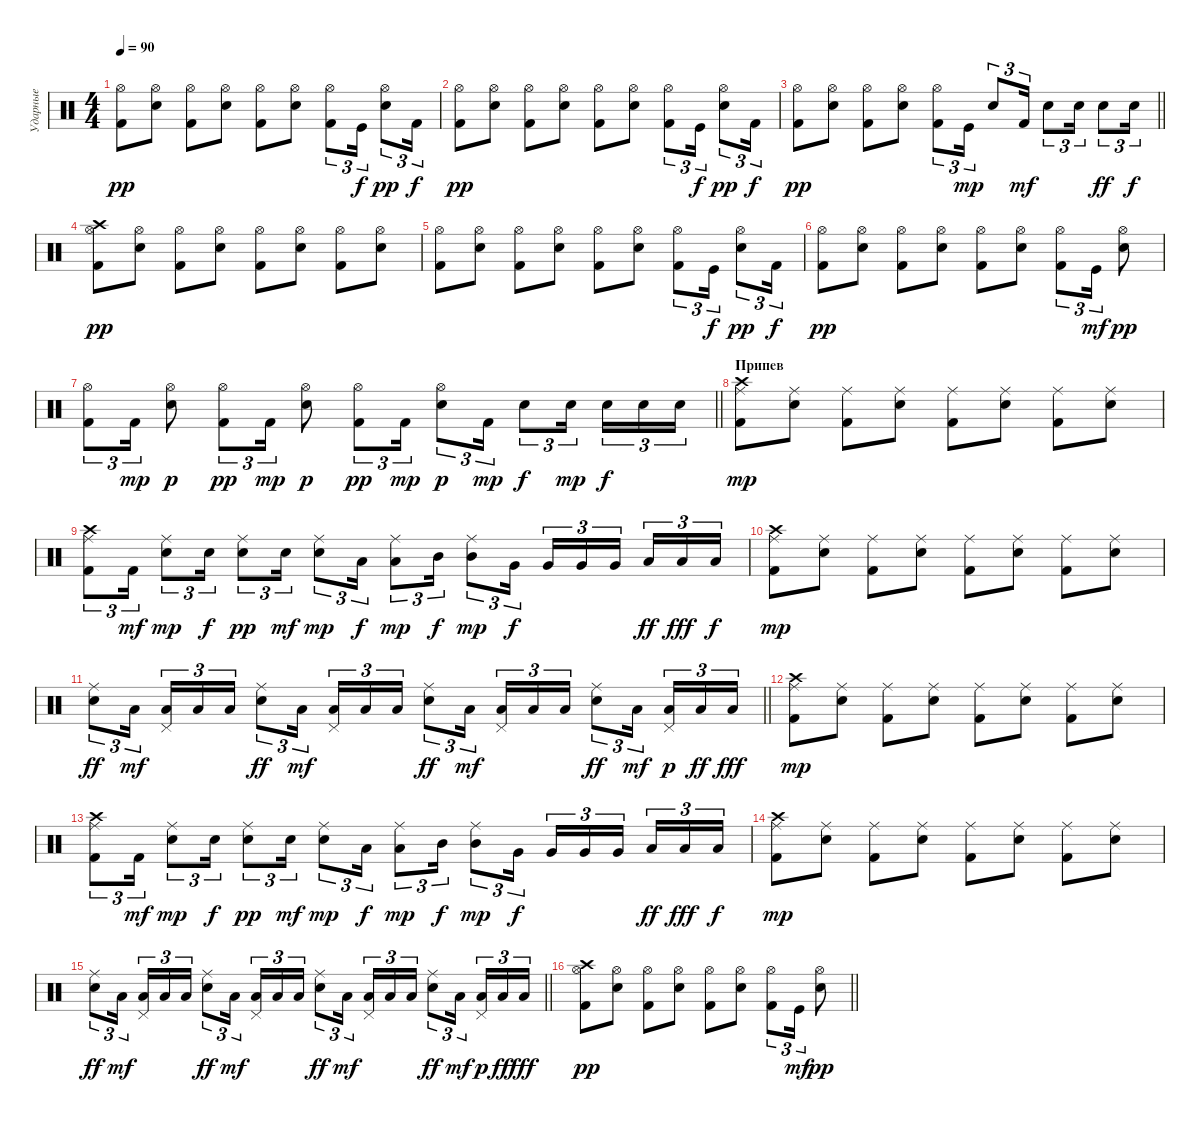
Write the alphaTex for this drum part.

\track ("Ударные" "Ударные") {instrument percussion}
\staff {score}
\articulation defaults
\ts (4 4)
\tempo 90
\clef neutral
\ks c
("Hi-Hat (open)" "Kick (hit) 2").8{dy pp} ("Hi-Hat (open)" "Snare (hit) 2").8 ("Hi-Hat (open)" "Kick (hit) 2").8 ("Hi-Hat (open)" "Snare (hit) 2").8 ("Hi-Hat (open)" "Kick (hit) 2").8 ("Hi-Hat (open)" "Snare (hit) 2").8 ("Hi-Hat (open)" "Kick (hit) 2").8{tu (3 2)} "Kick (hit)".16{tu (3 2) dy f} ("Hi-Hat (open)" "Snare (hit) 2").8{tu (3 2) dy pp} "Kick (hit) 2".16{tu (3 2) dy f} |
("Hi-Hat (open)" "Kick (hit) 2").8{dy pp} ("Hi-Hat (open)" "Snare (hit) 2").8 ("Hi-Hat (open)" "Kick (hit) 2").8 ("Hi-Hat (open)" "Snare (hit) 2").8 ("Hi-Hat (open)" "Kick (hit) 2").8 ("Hi-Hat (open)" "Snare (hit) 2").8 ("Hi-Hat (open)" "Kick (hit) 2").8{tu (3 2)} "Kick (hit)".16{tu (3 2) dy f} ("Hi-Hat (open)" "Snare (hit) 2").8{tu (3 2) dy pp} "Kick (hit) 2".16{tu (3 2) dy f} |
\barLineRight lightlight
("Hi-Hat (open)" "Kick (hit) 2").8{dy pp} ("Hi-Hat (open)" "Snare (hit) 2").8 ("Hi-Hat (open)" "Kick (hit) 2").8 ("Hi-Hat (open)" "Snare (hit) 2").8 ("Hi-Hat (open)" "Kick (hit) 2").8{tu (3 2)} "Kick (hit)".16{tu (3 2) dy mp} "Snare (hit) 2".8{tu (3 2)} "Kick (hit) 2".16{tu (3 2) dy mf} "Electric Snare (hit)".8{tu (3 2)} "Snare (hit) 2".16{tu (3 2)} "Electric Snare (hit)".8{tu (3 2) dy ff} "Snare (hit) 2".16{tu (3 2) dy f} |
("Crash high (hit)" "Hi-Hat (open)" "Kick (hit) 2").8{dy pp} ("Hi-Hat (open)" "Snare (hit) 2").8 ("Hi-Hat (open)" "Kick (hit) 2").8 ("Hi-Hat (open)" "Snare (hit) 2").8 ("Hi-Hat (open)" "Kick (hit) 2").8 ("Hi-Hat (open)" "Snare (hit) 2").8 ("Hi-Hat (open)" "Kick (hit) 2").8 ("Hi-Hat (open)" "Snare (hit) 2").8 |
("Hi-Hat (open)" "Kick (hit) 2").8 ("Hi-Hat (open)" "Snare (hit) 2").8 ("Hi-Hat (open)" "Kick (hit) 2").8 ("Hi-Hat (open)" "Snare (hit) 2").8 ("Hi-Hat (open)" "Kick (hit) 2").8 ("Hi-Hat (open)" "Snare (hit) 2").8 ("Hi-Hat (open)" "Kick (hit) 2").8{tu (3 2)} "Kick (hit)".16{tu (3 2) dy f} ("Hi-Hat (open)" "Snare (hit) 2").8{tu (3 2) dy pp} "Kick (hit) 2".16{tu (3 2) dy f} |
("Hi-Hat (open)" "Kick (hit) 2").8{dy pp} ("Hi-Hat (open)" "Snare (hit) 2").8 ("Hi-Hat (open)" "Kick (hit) 2").8 ("Hi-Hat (open)" "Snare (hit) 2").8 ("Hi-Hat (open)" "Kick (hit) 2").8 ("Hi-Hat (open)" "Snare (hit) 2").8 ("Hi-Hat (open)" "Kick (hit) 2").8{tu (3 2)} "Kick (hit)".16{tu (3 2) dy mf} ("Hi-Hat (open)" "Snare (hit) 2").8{dy pp} |
\barLineRight lightlight
("Hi-Hat (open)" "Kick (hit) 2").8{tu (3 2)} "Kick (hit) 2".16{tu (3 2) dy mp} ("Hi-Hat (open)" "Snare (hit) 2").8{dy p} ("Hi-Hat (open)" "Kick (hit) 2").8{tu (3 2) dy pp} "Kick (hit) 2".16{tu (3 2) dy mp} ("Hi-Hat (open)" "Snare (hit) 2").8{dy p} ("Hi-Hat (open)" "Kick (hit) 2").8{tu (3 2) dy pp} "Kick (hit) 2".16{tu (3 2) dy mp} ("Hi-Hat (open)" "Snare (hit) 2").8{tu (3 2) dy p} "Kick (hit) 2".16{tu (3 2) dy mp} "Snare (hit) 2".8{tu (3 2) dy f} "Snare (hit) 2".16{tu (3 2) dy mp beam splitsecondary} "Snare (hit) 2".16{tu (3 2) dy f} "Snare (hit) 2".16{tu (3 2)} "Snare (hit) 2".16{tu (3 2)} |
\section ("" "Припев")
("Crash high (hit)" "Ride (middle)" "Kick (hit) 2").8{dy mp} ("Ride (middle)" "Snare (hit) 2").8 ("Ride (middle)" "Kick (hit) 2").8 ("Ride (middle)" "Snare (hit) 2").8 ("Ride (middle)" "Kick (hit) 2").8 ("Ride (middle)" "Snare (hit) 2").8 ("Ride (middle)" "Kick (hit) 2").8 ("Ride (middle)" "Snare (hit) 2").8 |
("Crash high (hit)" "Ride (middle)" "Kick (hit) 2").8{tu (3 2)} "Kick (hit) 2".16{tu (3 2) dy mf} ("Ride (middle)" "Snare (hit) 2").8{tu (3 2) dy mp} "Snare (hit) 2".16{tu (3 2) dy f} ("Ride (middle)" "Snare (hit) 2").8{tu (3 2) dy pp} "Electric Snare (hit)".16{tu (3 2) dy mf} ("Ride (middle)" "Electric Snare (hit)").8{tu (3 2) dy mp} "Low Tom (hit)".16{tu (3 2) dy f} ("Ride (middle)" "Low Tom (hit)").8{tu (3 2) dy mp} "Mid Tom (hit)".16{tu (3 2) dy f} ("Ride (middle)" "Mid Tom (hit)").8{tu (3 2) dy mp} "Very Low Tom (hit)".16{tu (3 2) dy f} "Very Low Tom (hit)".16{tu (3 2)} "Very Low Tom (hit)".16{tu (3 2)} "Very Low Tom (hit)".16{tu (3 2) beam splitsecondary} "Low Tom (hit)".16{tu (3 2) dy ff} "Low Tom (hit)".16{tu (3 2) dy fff} "Low Tom (hit)".16{tu (3 2) dy f} |
("Crash high (hit)" "Ride (middle)" "Kick (hit) 2").8{dy mp} ("Ride (middle)" "Snare (hit) 2").8 ("Ride (middle)" "Kick (hit) 2").8 ("Ride (middle)" "Snare (hit) 2").8 ("Ride (middle)" "Kick (hit) 2").8 ("Ride (middle)" "Snare (hit) 2").8 ("Ride (middle)" "Kick (hit) 2").8 ("Ride (middle)" "Snare (hit) 2").8 |
\barLineRight lightlight
("Ride (middle)" "Snare (hit) 2").8{tu (3 2) dy ff} "Low Tom (hit)".16{tu (3 2) dy mf beam splitsecondary} ("Pedal Hi-Hat (hit)" "Low Tom (hit)").16{tu (3 2)} "Low Tom (hit)".16{tu (3 2)} "Low Tom (hit)".16{tu (3 2)} ("Ride (middle)" "Snare (hit) 2").8{tu (3 2) dy ff} "Low Tom (hit)".16{tu (3 2) dy mf beam splitsecondary} ("Pedal Hi-Hat (hit)" "Low Tom (hit)").16{tu (3 2)} "Low Tom (hit)".16{tu (3 2)} "Low Tom (hit)".16{tu (3 2)} ("Ride (middle)" "Snare (hit) 2").8{tu (3 2) dy ff} "Low Tom (hit)".16{tu (3 2) dy mf beam splitsecondary} ("Pedal Hi-Hat (hit)" "Low Tom (hit)").16{tu (3 2)} "Low Tom (hit)".16{tu (3 2)} "Low Tom (hit)".16{tu (3 2)} ("Ride (middle)" "Snare (hit) 2").8{tu (3 2) dy ff} "Low Tom (hit)".16{tu (3 2) dy mf beam splitsecondary} ("Pedal Hi-Hat (hit)" "Low Tom (hit)").16{tu (3 2) dy p} "Low Tom (hit)".16{tu (3 2) dy ff} "Low Tom (hit)".16{tu (3 2) dy fff} |
("Crash high (hit)" "Ride (middle)" "Kick (hit) 2").8{dy mp} ("Ride (middle)" "Snare (hit) 2").8 ("Ride (middle)" "Kick (hit) 2").8 ("Ride (middle)" "Snare (hit) 2").8 ("Ride (middle)" "Kick (hit) 2").8 ("Ride (middle)" "Snare (hit) 2").8 ("Ride (middle)" "Kick (hit) 2").8 ("Ride (middle)" "Snare (hit) 2").8 |
("Crash high (hit)" "Ride (middle)" "Kick (hit) 2").8{tu (3 2)} "Kick (hit) 2".16{tu (3 2) dy mf} ("Ride (middle)" "Snare (hit) 2").8{tu (3 2) dy mp} "Snare (hit) 2".16{tu (3 2) dy f} ("Ride (middle)" "Snare (hit) 2").8{tu (3 2) dy pp} "Electric Snare (hit)".16{tu (3 2) dy mf} ("Ride (middle)" "Electric Snare (hit)").8{tu (3 2) dy mp} "Low Tom (hit)".16{tu (3 2) dy f} ("Ride (middle)" "Low Tom (hit)").8{tu (3 2) dy mp} "Mid Tom (hit)".16{tu (3 2) dy f} ("Ride (middle)" "Mid Tom (hit)").8{tu (3 2) dy mp} "Very Low Tom (hit)".16{tu (3 2) dy f} "Very Low Tom (hit)".16{tu (3 2)} "Very Low Tom (hit)".16{tu (3 2)} "Very Low Tom (hit)".16{tu (3 2) beam splitsecondary} "Low Tom (hit)".16{tu (3 2) dy ff} "Low Tom (hit)".16{tu (3 2) dy fff} "Low Tom (hit)".16{tu (3 2) dy f} |
("Crash high (hit)" "Ride (middle)" "Kick (hit) 2").8{dy mp} ("Ride (middle)" "Snare (hit) 2").8 ("Ride (middle)" "Kick (hit) 2").8 ("Ride (middle)" "Snare (hit) 2").8 ("Ride (middle)" "Kick (hit) 2").8 ("Ride (middle)" "Snare (hit) 2").8 ("Ride (middle)" "Kick (hit) 2").8 ("Ride (middle)" "Snare (hit) 2").8 |
\barLineRight lightlight
("Ride (middle)" "Snare (hit) 2").8{tu (3 2) dy ff} "Low Tom (hit)".16{tu (3 2) dy mf beam splitsecondary} ("Pedal Hi-Hat (hit)" "Low Tom (hit)").16{tu (3 2)} "Low Tom (hit)".16{tu (3 2)} "Low Tom (hit)".16{tu (3 2)} ("Ride (middle)" "Snare (hit) 2").8{tu (3 2) dy ff} "Low Tom (hit)".16{tu (3 2) dy mf beam splitsecondary} ("Pedal Hi-Hat (hit)" "Low Tom (hit)").16{tu (3 2)} "Low Tom (hit)".16{tu (3 2)} "Low Tom (hit)".16{tu (3 2)} ("Ride (middle)" "Snare (hit) 2").8{tu (3 2) dy ff} "Low Tom (hit)".16{tu (3 2) dy mf beam splitsecondary} ("Pedal Hi-Hat (hit)" "Low Tom (hit)").16{tu (3 2)} "Low Tom (hit)".16{tu (3 2)} "Low Tom (hit)".16{tu (3 2)} ("Ride (middle)" "Snare (hit) 2").8{tu (3 2) dy ff} "Low Tom (hit)".16{tu (3 2) dy mf beam splitsecondary} ("Pedal Hi-Hat (hit)" "Low Tom (hit)").16{tu (3 2) dy p} "Low Tom (hit)".16{tu (3 2) dy ff} "Low Tom (hit)".16{tu (3 2) dy fff} |
\barLineRight lightlight
("Crash high (hit)" "Hi-Hat (open)" "Kick (hit) 2").8{dy pp} ("Hi-Hat (open)" "Snare (hit) 2").8 ("Hi-Hat (open)" "Kick (hit) 2").8 ("Hi-Hat (open)" "Snare (hit) 2").8 ("Hi-Hat (open)" "Kick (hit) 2").8 ("Hi-Hat (open)" "Snare (hit) 2").8 ("Hi-Hat (open)" "Kick (hit) 2").8{tu (3 2)} "Kick (hit)".16{tu (3 2) dy mf} ("Hi-Hat (open)" "Snare (hit) 2").8{dy pp}
